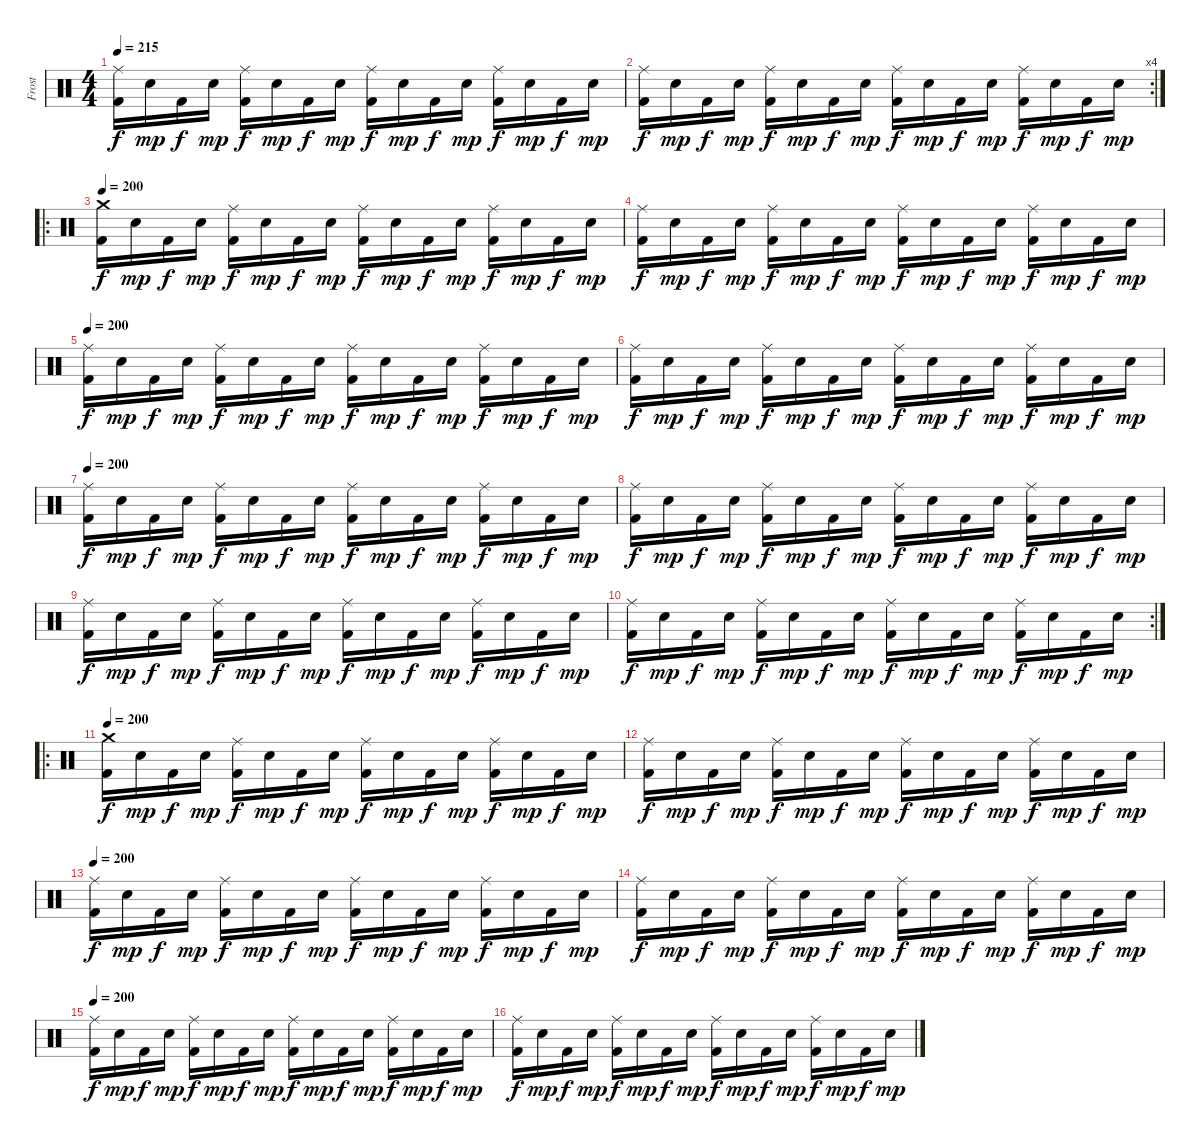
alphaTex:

\track ("Frost" "Frost") {instrument percussion}
\staff {score}
\articulation defaults
\ts (4 4)
\tempo 215
\clef neutral
\ks c
("Ride (middle)" "Kick (hit) 2").16{dy f} "Electric Snare (hit)".16{dy mp} "Kick (hit) 2".16{dy f} "Electric Snare (hit)".16{dy mp} ("Ride (middle)" "Kick (hit) 2").16{dy f} "Electric Snare (hit)".16{dy mp} "Kick (hit) 2".16{dy f} "Electric Snare (hit)".16{dy mp} ("Ride (middle)" "Kick (hit) 2").16{dy f} "Electric Snare (hit)".16{dy mp} "Kick (hit) 2".16{dy f} "Electric Snare (hit)".16{dy mp} ("Ride (middle)" "Kick (hit) 2").16{dy f} "Electric Snare (hit)".16{dy mp} "Kick (hit) 2".16{dy f} "Electric Snare (hit)".16{dy mp} |
\rc 4
("Ride (middle)" "Kick (hit) 2").16{dy f} "Electric Snare (hit)".16{dy mp} "Kick (hit) 2".16{dy f} "Electric Snare (hit)".16{dy mp} ("Ride (middle)" "Kick (hit) 2").16{dy f} "Electric Snare (hit)".16{dy mp} "Kick (hit) 2".16{dy f} "Electric Snare (hit)".16{dy mp} ("Ride (middle)" "Kick (hit) 2").16{dy f} "Electric Snare (hit)".16{dy mp} "Kick (hit) 2".16{dy f} "Electric Snare (hit)".16{dy mp} ("Ride (middle)" "Kick (hit) 2").16{dy f} "Electric Snare (hit)".16{dy mp} "Kick (hit) 2".16{dy f} "Electric Snare (hit)".16{dy mp} |
\ro
\tempo 200
("Crash medium (hit)" "Kick (hit) 2").16{dy f} "Electric Snare (hit)".16{dy mp} "Kick (hit) 2".16{dy f} "Electric Snare (hit)".16{dy mp} ("Ride (middle)" "Kick (hit) 2").16{dy f} "Electric Snare (hit)".16{dy mp} "Kick (hit) 2".16{dy f} "Electric Snare (hit)".16{dy mp} ("Ride (middle)" "Kick (hit) 2").16{dy f} "Electric Snare (hit)".16{dy mp} "Kick (hit) 2".16{dy f} "Electric Snare (hit)".16{dy mp} ("Ride (middle)" "Kick (hit) 2").16{dy f} "Electric Snare (hit)".16{dy mp} "Kick (hit) 2".16{dy f} "Electric Snare (hit)".16{dy mp} |
("Ride (middle)" "Kick (hit) 2").16{dy f} "Electric Snare (hit)".16{dy mp} "Kick (hit) 2".16{dy f} "Electric Snare (hit)".16{dy mp} ("Ride (middle)" "Kick (hit) 2").16{dy f} "Electric Snare (hit)".16{dy mp} "Kick (hit) 2".16{dy f} "Electric Snare (hit)".16{dy mp} ("Ride (middle)" "Kick (hit) 2").16{dy f} "Electric Snare (hit)".16{dy mp} "Kick (hit) 2".16{dy f} "Electric Snare (hit)".16{dy mp} ("Ride (middle)" "Kick (hit) 2").16{dy f} "Electric Snare (hit)".16{dy mp} "Kick (hit) 2".16{dy f} "Electric Snare (hit)".16{dy mp} |
\tempo 200
("Ride (middle)" "Kick (hit) 2").16{dy f} "Electric Snare (hit)".16{dy mp} "Kick (hit) 2".16{dy f} "Electric Snare (hit)".16{dy mp} ("Ride (middle)" "Kick (hit) 2").16{dy f} "Electric Snare (hit)".16{dy mp} "Kick (hit) 2".16{dy f} "Electric Snare (hit)".16{dy mp} ("Ride (middle)" "Kick (hit) 2").16{dy f} "Electric Snare (hit)".16{dy mp} "Kick (hit) 2".16{dy f} "Electric Snare (hit)".16{dy mp} ("Ride (middle)" "Kick (hit) 2").16{dy f} "Electric Snare (hit)".16{dy mp} "Kick (hit) 2".16{dy f} "Electric Snare (hit)".16{dy mp} |
("Ride (middle)" "Kick (hit) 2").16{dy f} "Electric Snare (hit)".16{dy mp} "Kick (hit) 2".16{dy f} "Electric Snare (hit)".16{dy mp} ("Ride (middle)" "Kick (hit) 2").16{dy f} "Electric Snare (hit)".16{dy mp} "Kick (hit) 2".16{dy f} "Electric Snare (hit)".16{dy mp} ("Ride (middle)" "Kick (hit) 2").16{dy f} "Electric Snare (hit)".16{dy mp} "Kick (hit) 2".16{dy f} "Electric Snare (hit)".16{dy mp} ("Ride (middle)" "Kick (hit) 2").16{dy f} "Electric Snare (hit)".16{dy mp} "Kick (hit) 2".16{dy f} "Electric Snare (hit)".16{dy mp} |
\tempo 200
("Ride (middle)" "Kick (hit) 2").16{dy f} "Electric Snare (hit)".16{dy mp} "Kick (hit) 2".16{dy f} "Electric Snare (hit)".16{dy mp} ("Ride (middle)" "Kick (hit) 2").16{dy f} "Electric Snare (hit)".16{dy mp} "Kick (hit) 2".16{dy f} "Electric Snare (hit)".16{dy mp} ("Ride (middle)" "Kick (hit) 2").16{dy f} "Electric Snare (hit)".16{dy mp} "Kick (hit) 2".16{dy f} "Electric Snare (hit)".16{dy mp} ("Ride (middle)" "Kick (hit) 2").16{dy f} "Electric Snare (hit)".16{dy mp} "Kick (hit) 2".16{dy f} "Electric Snare (hit)".16{dy mp} |
("Ride (middle)" "Kick (hit) 2").16{dy f} "Electric Snare (hit)".16{dy mp} "Kick (hit) 2".16{dy f} "Electric Snare (hit)".16{dy mp} ("Ride (middle)" "Kick (hit) 2").16{dy f} "Electric Snare (hit)".16{dy mp} "Kick (hit) 2".16{dy f} "Electric Snare (hit)".16{dy mp} ("Ride (middle)" "Kick (hit) 2").16{dy f} "Electric Snare (hit)".16{dy mp} "Kick (hit) 2".16{dy f} "Electric Snare (hit)".16{dy mp} ("Ride (middle)" "Kick (hit) 2").16{dy f} "Electric Snare (hit)".16{dy mp} "Kick (hit) 2".16{dy f} "Electric Snare (hit)".16{dy mp} |
("Ride (middle)" "Kick (hit) 2").16{dy f} "Electric Snare (hit)".16{dy mp} "Kick (hit) 2".16{dy f} "Electric Snare (hit)".16{dy mp} ("Ride (middle)" "Kick (hit) 2").16{dy f} "Electric Snare (hit)".16{dy mp} "Kick (hit) 2".16{dy f} "Electric Snare (hit)".16{dy mp} ("Ride (middle)" "Kick (hit) 2").16{dy f} "Electric Snare (hit)".16{dy mp} "Kick (hit) 2".16{dy f} "Electric Snare (hit)".16{dy mp} ("Ride (middle)" "Kick (hit) 2").16{dy f} "Electric Snare (hit)".16{dy mp} "Kick (hit) 2".16{dy f} "Electric Snare (hit)".16{dy mp} |
\rc 2
("Ride (middle)" "Kick (hit) 2").16{dy f} "Electric Snare (hit)".16{dy mp} "Kick (hit) 2".16{dy f} "Electric Snare (hit)".16{dy mp} ("Ride (middle)" "Kick (hit) 2").16{dy f} "Electric Snare (hit)".16{dy mp} "Kick (hit) 2".16{dy f} "Electric Snare (hit)".16{dy mp} ("Ride (middle)" "Kick (hit) 2").16{dy f} "Electric Snare (hit)".16{dy mp} "Kick (hit) 2".16{dy f} "Electric Snare (hit)".16{dy mp} ("Ride (middle)" "Kick (hit) 2").16{dy f} "Electric Snare (hit)".16{dy mp} "Kick (hit) 2".16{dy f} "Electric Snare (hit)".16{dy mp} |
\ro
\tempo 200
("Crash medium (hit)" "Kick (hit) 2").16{dy f} "Electric Snare (hit)".16{dy mp} "Kick (hit) 2".16{dy f} "Electric Snare (hit)".16{dy mp} ("Ride (middle)" "Kick (hit) 2").16{dy f} "Electric Snare (hit)".16{dy mp} "Kick (hit) 2".16{dy f} "Electric Snare (hit)".16{dy mp} ("Ride (middle)" "Kick (hit) 2").16{dy f} "Electric Snare (hit)".16{dy mp} "Kick (hit) 2".16{dy f} "Electric Snare (hit)".16{dy mp} ("Ride (middle)" "Kick (hit) 2").16{dy f} "Electric Snare (hit)".16{dy mp} "Kick (hit) 2".16{dy f} "Electric Snare (hit)".16{dy mp} |
("Ride (middle)" "Kick (hit) 2").16{dy f} "Electric Snare (hit)".16{dy mp} "Kick (hit) 2".16{dy f} "Electric Snare (hit)".16{dy mp} ("Ride (middle)" "Kick (hit) 2").16{dy f} "Electric Snare (hit)".16{dy mp} "Kick (hit) 2".16{dy f} "Electric Snare (hit)".16{dy mp} ("Ride (middle)" "Kick (hit) 2").16{dy f} "Electric Snare (hit)".16{dy mp} "Kick (hit) 2".16{dy f} "Electric Snare (hit)".16{dy mp} ("Ride (middle)" "Kick (hit) 2").16{dy f} "Electric Snare (hit)".16{dy mp} "Kick (hit) 2".16{dy f} "Electric Snare (hit)".16{dy mp} |
\tempo 200
("Ride (middle)" "Kick (hit) 2").16{dy f} "Electric Snare (hit)".16{dy mp} "Kick (hit) 2".16{dy f} "Electric Snare (hit)".16{dy mp} ("Ride (middle)" "Kick (hit) 2").16{dy f} "Electric Snare (hit)".16{dy mp} "Kick (hit) 2".16{dy f} "Electric Snare (hit)".16{dy mp} ("Ride (middle)" "Kick (hit) 2").16{dy f} "Electric Snare (hit)".16{dy mp} "Kick (hit) 2".16{dy f} "Electric Snare (hit)".16{dy mp} ("Ride (middle)" "Kick (hit) 2").16{dy f} "Electric Snare (hit)".16{dy mp} "Kick (hit) 2".16{dy f} "Electric Snare (hit)".16{dy mp} |
("Ride (middle)" "Kick (hit) 2").16{dy f} "Electric Snare (hit)".16{dy mp} "Kick (hit) 2".16{dy f} "Electric Snare (hit)".16{dy mp} ("Ride (middle)" "Kick (hit) 2").16{dy f} "Electric Snare (hit)".16{dy mp} "Kick (hit) 2".16{dy f} "Electric Snare (hit)".16{dy mp} ("Ride (middle)" "Kick (hit) 2").16{dy f} "Electric Snare (hit)".16{dy mp} "Kick (hit) 2".16{dy f} "Electric Snare (hit)".16{dy mp} ("Ride (middle)" "Kick (hit) 2").16{dy f} "Electric Snare (hit)".16{dy mp} "Kick (hit) 2".16{dy f} "Electric Snare (hit)".16{dy mp} |
\tempo 200
("Ride (middle)" "Kick (hit) 2").16{dy f} "Electric Snare (hit)".16{dy mp} "Kick (hit) 2".16{dy f} "Electric Snare (hit)".16{dy mp} ("Ride (middle)" "Kick (hit) 2").16{dy f} "Electric Snare (hit)".16{dy mp} "Kick (hit) 2".16{dy f} "Electric Snare (hit)".16{dy mp} ("Ride (middle)" "Kick (hit) 2").16{dy f} "Electric Snare (hit)".16{dy mp} "Kick (hit) 2".16{dy f} "Electric Snare (hit)".16{dy mp} ("Ride (middle)" "Kick (hit) 2").16{dy f} "Electric Snare (hit)".16{dy mp} "Kick (hit) 2".16{dy f} "Electric Snare (hit)".16{dy mp} |
("Ride (middle)" "Kick (hit) 2").16{dy f} "Electric Snare (hit)".16{dy mp} "Kick (hit) 2".16{dy f} "Electric Snare (hit)".16{dy mp} ("Ride (middle)" "Kick (hit) 2").16{dy f} "Electric Snare (hit)".16{dy mp} "Kick (hit) 2".16{dy f} "Electric Snare (hit)".16{dy mp} ("Ride (middle)" "Kick (hit) 2").16{dy f} "Electric Snare (hit)".16{dy mp} "Kick (hit) 2".16{dy f} "Electric Snare (hit)".16{dy mp} ("Ride (middle)" "Kick (hit) 2").16{dy f} "Electric Snare (hit)".16{dy mp} "Kick (hit) 2".16{dy f} "Electric Snare (hit)".16{dy mp}
